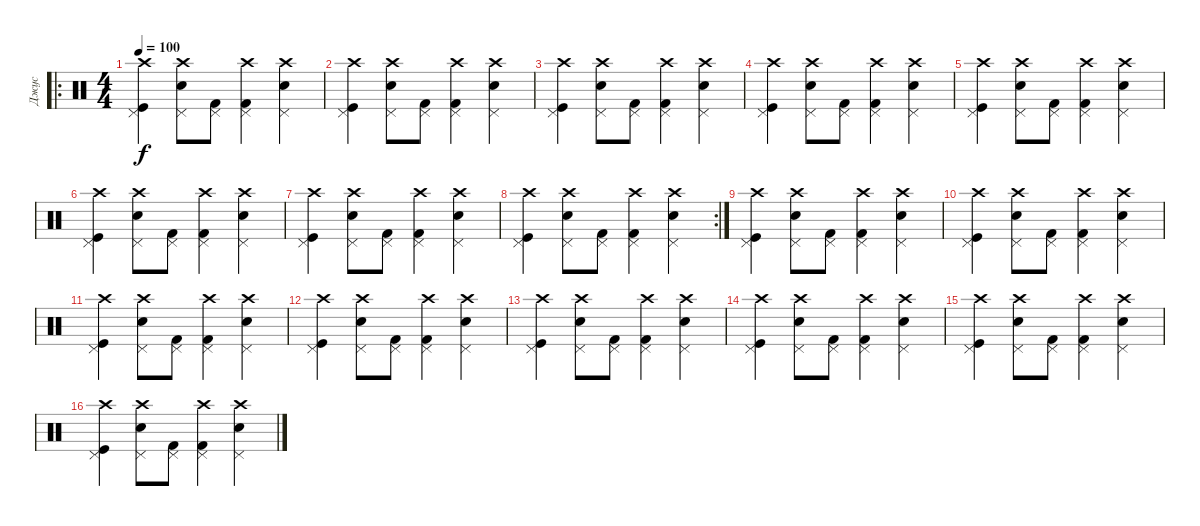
\track ("Джус" "Джус") {instrument percussion}
\staff {score}
\articulation defaults
\ro
\ts (4 4)
\tempo 100
\clef neutral
\ks c
("Crash high (hit)" "Pedal Hi-Hat (hit)" "Kick (hit)").4{dy f} ("Crash high (hit)" "Pedal Hi-Hat (hit)" "Electric Snare (hit)").8 ("Pedal Hi-Hat (hit)" "Kick (hit) 2").8 ("Crash high (hit)" "Pedal Hi-Hat (hit)" "Kick (hit) 2").4 ("Crash high (hit)" "Pedal Hi-Hat (hit)" "Electric Snare (hit)").4 |
("Crash high (hit)" "Pedal Hi-Hat (hit)" "Kick (hit)").4 ("Crash high (hit)" "Pedal Hi-Hat (hit)" "Electric Snare (hit)").8 ("Pedal Hi-Hat (hit)" "Kick (hit) 2").8 ("Crash high (hit)" "Pedal Hi-Hat (hit)" "Kick (hit) 2").4 ("Crash high (hit)" "Pedal Hi-Hat (hit)" "Electric Snare (hit)").4 |
("Crash high (hit)" "Pedal Hi-Hat (hit)" "Kick (hit)").4 ("Crash high (hit)" "Pedal Hi-Hat (hit)" "Electric Snare (hit)").8 ("Pedal Hi-Hat (hit)" "Kick (hit) 2").8 ("Crash high (hit)" "Pedal Hi-Hat (hit)" "Kick (hit) 2").4 ("Crash high (hit)" "Pedal Hi-Hat (hit)" "Electric Snare (hit)").4 |
("Crash high (hit)" "Pedal Hi-Hat (hit)" "Kick (hit)").4 ("Crash high (hit)" "Pedal Hi-Hat (hit)" "Electric Snare (hit)").8 ("Pedal Hi-Hat (hit)" "Kick (hit) 2").8 ("Crash high (hit)" "Pedal Hi-Hat (hit)" "Kick (hit) 2").4 ("Crash high (hit)" "Pedal Hi-Hat (hit)" "Electric Snare (hit)").4 |
("Crash high (hit)" "Pedal Hi-Hat (hit)" "Kick (hit)").4 ("Crash high (hit)" "Pedal Hi-Hat (hit)" "Electric Snare (hit)").8 ("Pedal Hi-Hat (hit)" "Kick (hit) 2").8 ("Crash high (hit)" "Pedal Hi-Hat (hit)" "Kick (hit) 2").4 ("Crash high (hit)" "Pedal Hi-Hat (hit)" "Electric Snare (hit)").4 |
("Crash high (hit)" "Pedal Hi-Hat (hit)" "Kick (hit)").4 ("Crash high (hit)" "Pedal Hi-Hat (hit)" "Electric Snare (hit)").8 ("Pedal Hi-Hat (hit)" "Kick (hit) 2").8 ("Crash high (hit)" "Pedal Hi-Hat (hit)" "Kick (hit) 2").4 ("Crash high (hit)" "Pedal Hi-Hat (hit)" "Electric Snare (hit)").4 |
("Crash high (hit)" "Pedal Hi-Hat (hit)" "Kick (hit)").4 ("Crash high (hit)" "Pedal Hi-Hat (hit)" "Electric Snare (hit)").8 ("Pedal Hi-Hat (hit)" "Kick (hit) 2").8 ("Crash high (hit)" "Pedal Hi-Hat (hit)" "Kick (hit) 2").4 ("Crash high (hit)" "Pedal Hi-Hat (hit)" "Electric Snare (hit)").4 |
\rc 2
("Crash high (hit)" "Pedal Hi-Hat (hit)" "Kick (hit)").4 ("Crash high (hit)" "Pedal Hi-Hat (hit)" "Electric Snare (hit)").8 ("Pedal Hi-Hat (hit)" "Kick (hit) 2").8 ("Crash high (hit)" "Pedal Hi-Hat (hit)" "Kick (hit) 2").4 ("Crash high (hit)" "Pedal Hi-Hat (hit)" "Electric Snare (hit)").4 |
("Crash high (hit)" "Pedal Hi-Hat (hit)" "Kick (hit)").4 ("Crash high (hit)" "Pedal Hi-Hat (hit)" "Electric Snare (hit)").8 ("Pedal Hi-Hat (hit)" "Kick (hit) 2").8 ("Crash high (hit)" "Pedal Hi-Hat (hit)" "Kick (hit) 2").4 ("Crash high (hit)" "Pedal Hi-Hat (hit)" "Electric Snare (hit)").4 |
("Crash high (hit)" "Pedal Hi-Hat (hit)" "Kick (hit)").4 ("Crash high (hit)" "Pedal Hi-Hat (hit)" "Electric Snare (hit)").8 ("Pedal Hi-Hat (hit)" "Kick (hit) 2").8 ("Crash high (hit)" "Pedal Hi-Hat (hit)" "Kick (hit) 2").4 ("Crash high (hit)" "Pedal Hi-Hat (hit)" "Electric Snare (hit)").4 |
("Crash high (hit)" "Pedal Hi-Hat (hit)" "Kick (hit)").4 ("Crash high (hit)" "Pedal Hi-Hat (hit)" "Electric Snare (hit)").8 ("Pedal Hi-Hat (hit)" "Kick (hit) 2").8 ("Crash high (hit)" "Pedal Hi-Hat (hit)" "Kick (hit) 2").4 ("Crash high (hit)" "Pedal Hi-Hat (hit)" "Electric Snare (hit)").4 |
("Crash high (hit)" "Pedal Hi-Hat (hit)" "Kick (hit)").4 ("Crash high (hit)" "Pedal Hi-Hat (hit)" "Electric Snare (hit)").8 ("Pedal Hi-Hat (hit)" "Kick (hit) 2").8 ("Crash high (hit)" "Pedal Hi-Hat (hit)" "Kick (hit) 2").4 ("Crash high (hit)" "Pedal Hi-Hat (hit)" "Electric Snare (hit)").4 |
("Crash high (hit)" "Pedal Hi-Hat (hit)" "Kick (hit)").4 ("Crash high (hit)" "Pedal Hi-Hat (hit)" "Electric Snare (hit)").8 ("Pedal Hi-Hat (hit)" "Kick (hit) 2").8 ("Crash high (hit)" "Pedal Hi-Hat (hit)" "Kick (hit) 2").4 ("Crash high (hit)" "Pedal Hi-Hat (hit)" "Electric Snare (hit)").4 |
("Crash high (hit)" "Pedal Hi-Hat (hit)" "Kick (hit)").4 ("Crash high (hit)" "Pedal Hi-Hat (hit)" "Electric Snare (hit)").8 ("Pedal Hi-Hat (hit)" "Kick (hit) 2").8 ("Crash high (hit)" "Pedal Hi-Hat (hit)" "Kick (hit) 2").4 ("Crash high (hit)" "Pedal Hi-Hat (hit)" "Electric Snare (hit)").4 |
("Crash high (hit)" "Pedal Hi-Hat (hit)" "Kick (hit)").4 ("Crash high (hit)" "Pedal Hi-Hat (hit)" "Electric Snare (hit)").8 ("Pedal Hi-Hat (hit)" "Kick (hit) 2").8 ("Crash high (hit)" "Pedal Hi-Hat (hit)" "Kick (hit) 2").4 ("Crash high (hit)" "Pedal Hi-Hat (hit)" "Electric Snare (hit)").4 |
("Crash high (hit)" "Pedal Hi-Hat (hit)" "Kick (hit)").4 ("Crash high (hit)" "Pedal Hi-Hat (hit)" "Electric Snare (hit)").8 ("Pedal Hi-Hat (hit)" "Kick (hit) 2").8 ("Crash high (hit)" "Pedal Hi-Hat (hit)" "Kick (hit) 2").4 ("Crash high (hit)" "Pedal Hi-Hat (hit)" "Electric Snare (hit)").4
